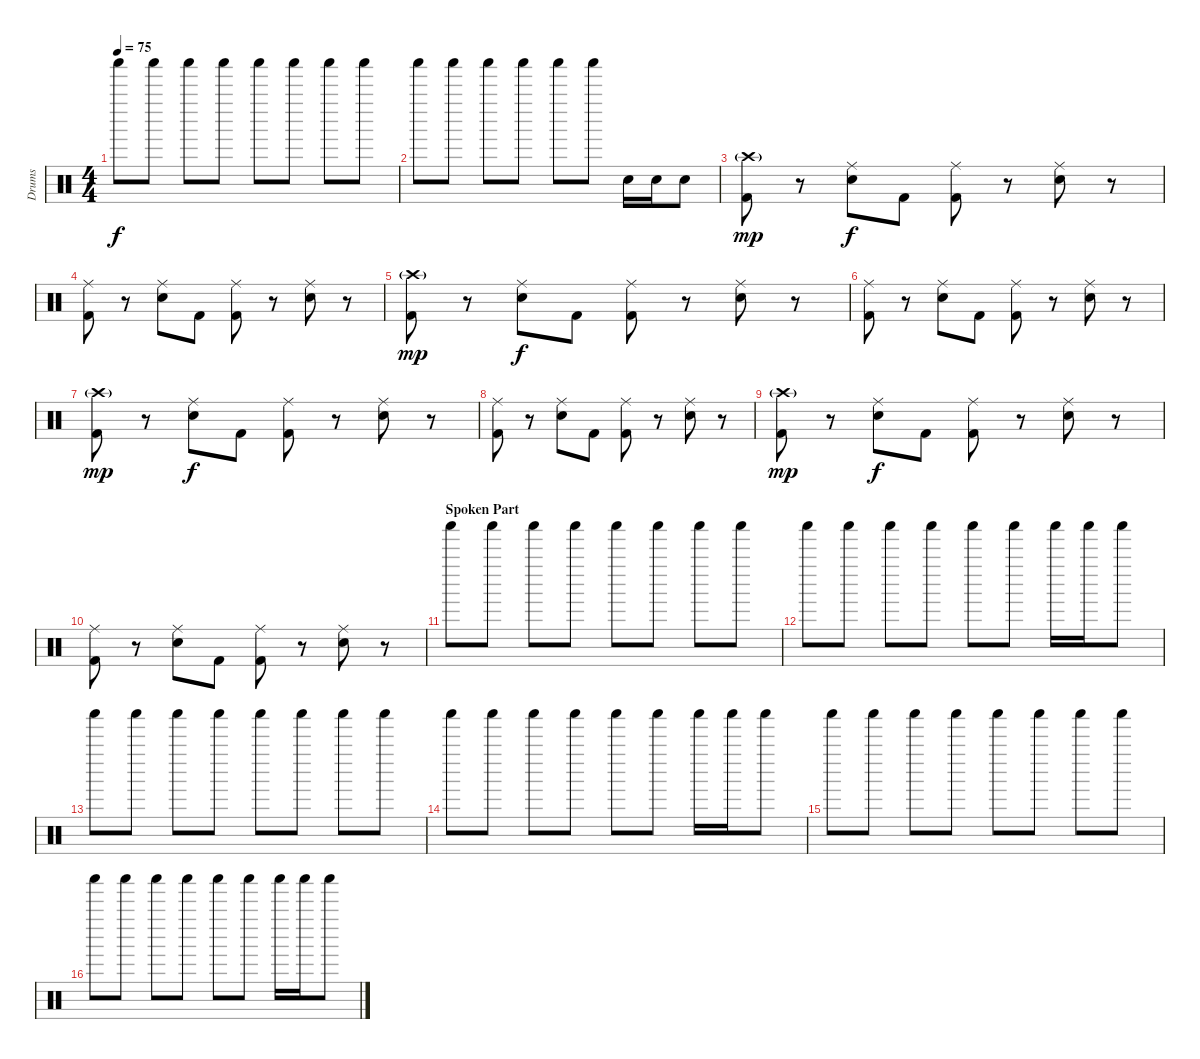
\track ("Drums" "Drums") {instrument percussion}
\staff {score}
\articulation defaults
\ts (4 4)
\tempo 75
\clef neutral
\ks c "Shaker (hit)".8{dy f volume 8} "Shaker (hit)".8 "Shaker (hit)".8 "Shaker (hit)".8 "Shaker (hit)".8 "Shaker (hit)".8 "Shaker (hit)".8 "Shaker (hit)".8
|
"Shaker (hit)".8{volume 8} "Shaker (hit)".8 "Shaker (hit)".8 "Shaker (hit)".8 "Shaker (hit)".8 "Shaker (hit)".8 "Snare (hit) 2".16{volume 13} "Snare (hit) 2".16 "Snare (hit) 2".8 |
("Crash high (hit)"{g} "Kick (hit) 2").8{dy mp} r.8 ("Ride (middle)" "Snare (hit) 2").8{dy f} "Kick (hit) 2".8 ("Ride (middle)" "Kick (hit) 2").8 r.8 ("Ride (middle)" "Snare (hit) 2").8 r.8 |
("Ride (middle)" "Kick (hit) 2").8 r.8 ("Ride (middle)" "Snare (hit) 2").8 "Kick (hit) 2".8 ("Ride (middle)" "Kick (hit) 2").8 r.8 ("Ride (middle)" "Snare (hit) 2").8 r.8 |
("Crash high (hit)"{g} "Kick (hit) 2").8{dy mp} r.8 ("Ride (middle)" "Snare (hit) 2").8{dy f} "Kick (hit) 2".8 ("Ride (middle)" "Kick (hit) 2").8 r.8 ("Ride (middle)" "Snare (hit) 2").8 r.8 |
("Ride (middle)" "Kick (hit) 2").8 r.8 ("Ride (middle)" "Snare (hit) 2").8 "Kick (hit) 2".8 ("Ride (middle)" "Kick (hit) 2").8 r.8 ("Ride (middle)" "Snare (hit) 2").8 r.8 |
("Crash high (hit)"{g} "Kick (hit) 2").8{dy mp} r.8 ("Ride (middle)" "Snare (hit) 2").8{dy f} "Kick (hit) 2".8 ("Ride (middle)" "Kick (hit) 2").8 r.8 ("Ride (middle)" "Snare (hit) 2").8 r.8 |
("Ride (middle)" "Kick (hit) 2").8 r.8 ("Ride (middle)" "Snare (hit) 2").8 "Kick (hit) 2".8 ("Ride (middle)" "Kick (hit) 2").8 r.8 ("Ride (middle)" "Snare (hit) 2").8 r.8 |
("Crash high (hit)"{g} "Kick (hit) 2").8{dy mp} r.8 ("Ride (middle)" "Snare (hit) 2").8{dy f} "Kick (hit) 2".8 ("Ride (middle)" "Kick (hit) 2").8 r.8 ("Ride (middle)" "Snare (hit) 2").8 r.8 |
("Ride (middle)" "Kick (hit) 2").8 r.8 ("Ride (middle)" "Snare (hit) 2").8 "Kick (hit) 2".8 ("Ride (middle)" "Kick (hit) 2").8 r.8 ("Ride (middle)" "Snare (hit) 2").8 r.8 |
\section ("" "Spoken Part")
"Shaker (hit)".8 "Shaker (hit)".8 "Shaker (hit)".8 "Shaker (hit)".8 "Shaker (hit)".8 "Shaker (hit)".8 "Shaker (hit)".8 "Shaker (hit)".8 |
"Shaker (hit)".8 "Shaker (hit)".8 "Shaker (hit)".8 "Shaker (hit)".8 "Shaker (hit)".8 "Shaker (hit)".8 "Shaker (hit)".16 "Shaker (hit)".16 "Shaker (hit)".8 |
"Shaker (hit)".8 "Shaker (hit)".8 "Shaker (hit)".8 "Shaker (hit)".8 "Shaker (hit)".8 "Shaker (hit)".8 "Shaker (hit)".8 "Shaker (hit)".8 |
"Shaker (hit)".8 "Shaker (hit)".8 "Shaker (hit)".8 "Shaker (hit)".8 "Shaker (hit)".8 "Shaker (hit)".8 "Shaker (hit)".16 "Shaker (hit)".16 "Shaker (hit)".8 |
"Shaker (hit)".8 "Shaker (hit)".8 "Shaker (hit)".8 "Shaker (hit)".8 "Shaker (hit)".8 "Shaker (hit)".8 "Shaker (hit)".8 "Shaker (hit)".8 |
"Shaker (hit)".8 "Shaker (hit)".8 "Shaker (hit)".8 "Shaker (hit)".8 "Shaker (hit)".8 "Shaker (hit)".8 "Shaker (hit)".16 "Shaker (hit)".16 "Shaker (hit)".8
